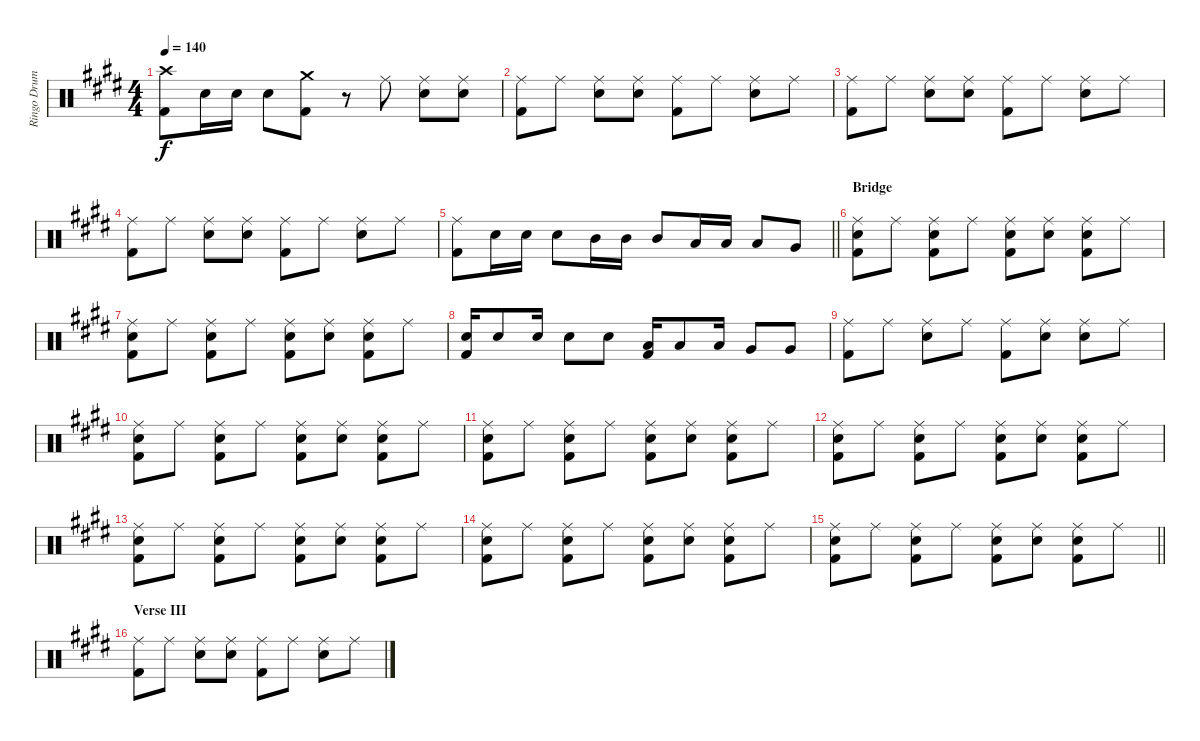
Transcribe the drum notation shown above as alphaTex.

\track ("Ringo Drums" "Ringo Drum") {instrument percussion}
\staff {score}
\articulation defaults
\ts (4 4)
\tempo 140
\clef neutral
\ks e
("Crash high (hit)" "Kick (hit) 2").8{dy f} "Snare (hit) 2".16 "Electric Snare (hit)".16 "Snare (hit) 2".8 ("Crash medium (hit)" "Kick (hit) 2").8 r.8 "Ride (middle)".8 ("Ride (middle)" "Snare (hit) 2").8 ("Ride (middle)" "Snare (hit) 2").8 |
("Ride (middle)" "Kick (hit) 2").8 "Ride (middle)".8 ("Ride (middle)" "Snare (hit) 2").8 ("Ride (middle)" "Snare (hit) 2").8 ("Ride (middle)" "Kick (hit) 2").8 "Ride (middle)".8 ("Ride (middle)" "Snare (hit) 2").8 "Ride (middle)".8 |
("Ride (middle)" "Kick (hit) 2").8 "Ride (middle)".8 ("Ride (middle)" "Snare (hit) 2").8 ("Ride (middle)" "Snare (hit) 2").8 ("Ride (middle)" "Kick (hit) 2").8 "Ride (middle)".8 ("Ride (middle)" "Snare (hit) 2").8 "Ride (middle)".8 |
("Ride (middle)" "Kick (hit) 2").8 "Ride (middle)".8 ("Ride (middle)" "Snare (hit) 2").8 ("Ride (middle)" "Snare (hit) 2").8 ("Ride (middle)" "Kick (hit) 2").8 "Ride (middle)".8 ("Ride (middle)" "Snare (hit) 2").8 "Ride (middle)".8 |
\barLineRight lightlight
("Ride (middle)" "Kick (hit) 2").8 "Snare (hit) 2".16 "Electric Snare (hit)".16 "Snare (hit) 2".8 "Mid Tom (hit)".16 "Mid Tom (hit)".16 "Mid Tom (hit)".8 "Low Tom (hit)".16 "Low Tom (hit)".16 "Low Tom (hit)".8 "Very Low Tom (hit)".8 |
\section ("" "Bridge")
("Ride (middle)" "Snare (hit) 2" "Kick (hit) 2").8 "Ride (middle)".8 ("Ride (middle)" "Snare (hit) 2" "Kick (hit) 2").8 "Ride (middle)".8 ("Ride (middle)" "Snare (hit) 2" "Kick (hit) 2").8 ("Ride (middle)" "Snare (hit) 2").8 ("Ride (middle)" "Snare (hit) 2" "Kick (hit) 2").8 "Ride (middle)".8 |
("Ride (middle)" "Snare (hit) 2" "Kick (hit) 2").8 "Ride (middle)".8 ("Ride (middle)" "Snare (hit) 2" "Kick (hit) 2").8 "Ride (middle)".8 ("Ride (middle)" "Snare (hit) 2" "Kick (hit) 2").8 ("Ride (middle)" "Snare (hit) 2").8 ("Ride (middle)" "Snare (hit) 2" "Kick (hit) 2").8 "Ride (middle)".8 |
("Snare (hit) 2" "Kick (hit) 2").16 "Electric Snare (hit)".8 "Snare (hit) 2".16 "Electric Snare (hit)".8 "Snare (hit) 2".8 ("Low Tom (hit)" "Kick (hit) 2").16 "Low Tom (hit)".8 "Low Tom (hit)".16 "Very Low Tom (hit)".8 "Very Low Tom (hit)".8 |
("Ride (middle)" "Kick (hit) 2").8 "Ride (middle)".8 ("Ride (middle)" "Snare (hit) 2").8 "Ride (middle)".8 ("Ride (middle)" "Kick (hit) 2").8 ("Ride (middle)" "Snare (hit) 2").8 ("Ride (middle)" "Snare (hit) 2").8 "Ride (middle)".8 |
("Ride (middle)" "Snare (hit) 2" "Kick (hit) 2").8 "Ride (middle)".8 ("Ride (middle)" "Snare (hit) 2" "Kick (hit) 2").8 "Ride (middle)".8 ("Ride (middle)" "Snare (hit) 2" "Kick (hit) 2").8 ("Ride (middle)" "Snare (hit) 2").8 ("Ride (middle)" "Snare (hit) 2" "Kick (hit) 2").8 "Ride (middle)".8 |
("Ride (middle)" "Snare (hit) 2" "Kick (hit) 2").8 "Ride (middle)".8 ("Ride (middle)" "Snare (hit) 2" "Kick (hit) 2").8 "Ride (middle)".8 ("Ride (middle)" "Snare (hit) 2" "Kick (hit) 2").8 ("Ride (middle)" "Snare (hit) 2").8 ("Ride (middle)" "Snare (hit) 2" "Kick (hit) 2").8 "Ride (middle)".8 |
("Ride (middle)" "Snare (hit) 2" "Kick (hit) 2").8 "Ride (middle)".8 ("Ride (middle)" "Snare (hit) 2" "Kick (hit) 2").8 "Ride (middle)".8 ("Ride (middle)" "Snare (hit) 2" "Kick (hit) 2").8 ("Ride (middle)" "Snare (hit) 2").8 ("Ride (middle)" "Snare (hit) 2" "Kick (hit) 2").8 "Ride (middle)".8 |
("Ride (middle)" "Snare (hit) 2" "Kick (hit) 2").8 "Ride (middle)".8 ("Ride (middle)" "Snare (hit) 2" "Kick (hit) 2").8 "Ride (middle)".8 ("Ride (middle)" "Snare (hit) 2" "Kick (hit) 2").8 ("Ride (middle)" "Snare (hit) 2").8 ("Ride (middle)" "Snare (hit) 2" "Kick (hit) 2").8 "Ride (middle)".8 |
("Ride (middle)" "Snare (hit) 2" "Kick (hit) 2").8 "Ride (middle)".8 ("Ride (middle)" "Snare (hit) 2" "Kick (hit) 2").8 "Ride (middle)".8 ("Ride (middle)" "Snare (hit) 2" "Kick (hit) 2").8 ("Ride (middle)" "Snare (hit) 2").8 ("Ride (middle)" "Snare (hit) 2" "Kick (hit) 2").8 "Ride (middle)".8 |
\barLineRight lightlight
("Ride (middle)" "Snare (hit) 2" "Kick (hit) 2").8 "Ride (middle)".8 ("Ride (middle)" "Snare (hit) 2" "Kick (hit) 2").8 "Ride (middle)".8 ("Ride (middle)" "Snare (hit) 2" "Kick (hit) 2").8 ("Ride (middle)" "Snare (hit) 2").8 ("Ride (middle)" "Snare (hit) 2" "Kick (hit) 2").8 "Ride (middle)".8 |
\section ("" "Verse III")
("Ride (middle)" "Kick (hit) 2").8 "Ride (middle)".8 ("Ride (middle)" "Snare (hit) 2").8 ("Ride (middle)" "Snare (hit) 2").8 ("Ride (middle)" "Kick (hit) 2").8 "Ride (middle)".8 ("Ride (middle)" "Snare (hit) 2").8 "Ride (middle)".8
